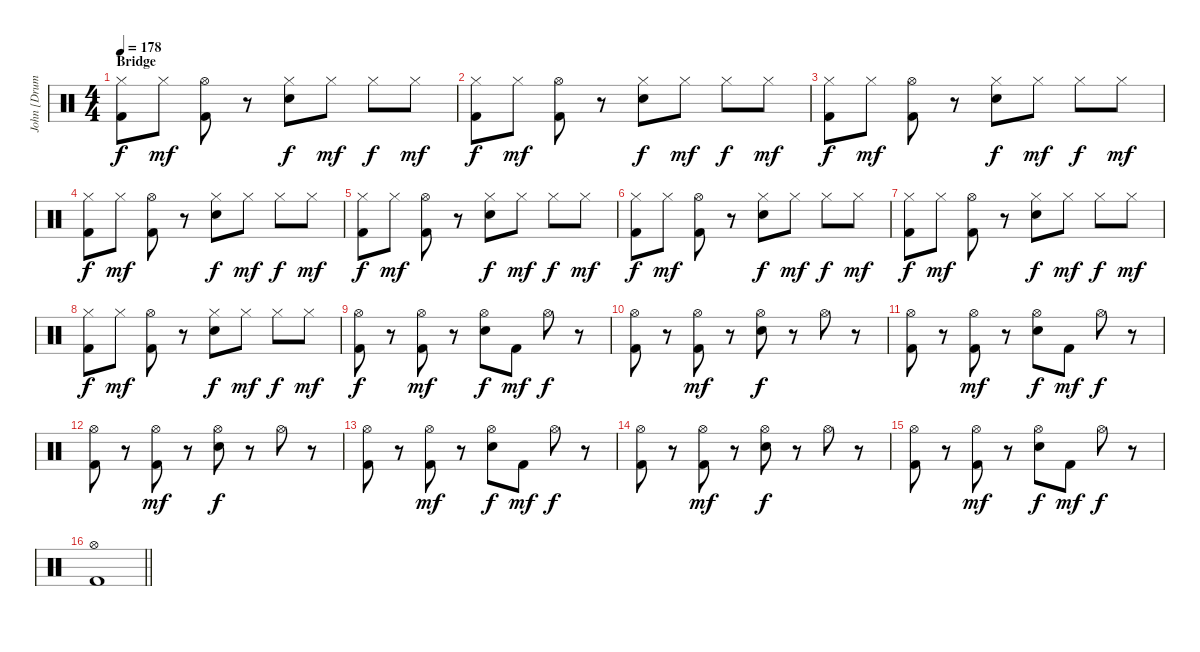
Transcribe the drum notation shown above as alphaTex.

\track ("John [Drums]" "John [Drum") {instrument percussion}
\staff {score}
\articulation defaults
\ts (4 4)
\section ("" "Bridge")
\tempo 178
\clef neutral
\ks c
("Hi-Hat (closed)" "Kick (hit) 2").8{dy f} "Hi-Hat (closed)".8{dy mf} ("Hi-Hat (open)" "Kick (hit) 2").8 r.8 ("Hi-Hat (closed)" "Electric Snare (hit)").8{dy f} "Hi-Hat (closed)".8{dy mf} "Hi-Hat (closed)".8{dy f} "Hi-Hat (closed)".8{dy mf} |
("Hi-Hat (closed)" "Kick (hit) 2").8{dy f} "Hi-Hat (closed)".8{dy mf} ("Hi-Hat (open)" "Kick (hit) 2").8 r.8 ("Hi-Hat (closed)" "Electric Snare (hit)").8{dy f} "Hi-Hat (closed)".8{dy mf} "Hi-Hat (closed)".8{dy f} "Hi-Hat (closed)".8{dy mf} |
("Hi-Hat (closed)" "Kick (hit) 2").8{dy f} "Hi-Hat (closed)".8{dy mf} ("Hi-Hat (open)" "Kick (hit) 2").8 r.8 ("Hi-Hat (closed)" "Electric Snare (hit)").8{dy f} "Hi-Hat (closed)".8{dy mf} "Hi-Hat (closed)".8{dy f} "Hi-Hat (closed)".8{dy mf} |
("Hi-Hat (closed)" "Kick (hit) 2").8{dy f} "Hi-Hat (closed)".8{dy mf} ("Hi-Hat (open)" "Kick (hit) 2").8 r.8 ("Hi-Hat (closed)" "Electric Snare (hit)").8{dy f} "Hi-Hat (closed)".8{dy mf} "Hi-Hat (closed)".8{dy f} "Hi-Hat (closed)".8{dy mf} |
("Hi-Hat (closed)" "Kick (hit) 2").8{dy f} "Hi-Hat (closed)".8{dy mf} ("Hi-Hat (open)" "Kick (hit) 2").8 r.8 ("Hi-Hat (closed)" "Electric Snare (hit)").8{dy f} "Hi-Hat (closed)".8{dy mf} "Hi-Hat (closed)".8{dy f} "Hi-Hat (closed)".8{dy mf} |
("Hi-Hat (closed)" "Kick (hit) 2").8{dy f} "Hi-Hat (closed)".8{dy mf} ("Hi-Hat (open)" "Kick (hit) 2").8 r.8 ("Hi-Hat (closed)" "Electric Snare (hit)").8{dy f} "Hi-Hat (closed)".8{dy mf} "Hi-Hat (closed)".8{dy f} "Hi-Hat (closed)".8{dy mf} |
("Hi-Hat (closed)" "Kick (hit) 2").8{dy f} "Hi-Hat (closed)".8{dy mf} ("Hi-Hat (open)" "Kick (hit) 2").8 r.8 ("Hi-Hat (closed)" "Electric Snare (hit)").8{dy f} "Hi-Hat (closed)".8{dy mf} "Hi-Hat (closed)".8{dy f} "Hi-Hat (closed)".8{dy mf} |
("Hi-Hat (closed)" "Kick (hit) 2").8{dy f} "Hi-Hat (closed)".8{dy mf} ("Hi-Hat (open)" "Kick (hit) 2").8 r.8 ("Hi-Hat (closed)" "Electric Snare (hit)").8{dy f} "Hi-Hat (closed)".8{dy mf} "Hi-Hat (closed)".8{dy f} "Hi-Hat (closed)".8{dy mf} |
("Hi-Hat (open)" "Kick (hit) 2").8{dy f} r.8 ("Hi-Hat (open)" "Kick (hit) 2").8{dy mf} r.8 ("Hi-Hat (open)" "Electric Snare (hit)").8{dy f} "Kick (hit) 2".8{dy mf} "Hi-Hat (open)".8{dy f} r.8 |
("Hi-Hat (open)" "Kick (hit) 2").8 r.8 ("Hi-Hat (open)" "Kick (hit) 2").8{dy mf} r.8 ("Hi-Hat (open)" "Electric Snare (hit)").8{dy f} r.8 "Hi-Hat (open)".8 r.8 |
("Hi-Hat (open)" "Kick (hit) 2").8 r.8 ("Hi-Hat (open)" "Kick (hit) 2").8{dy mf} r.8 ("Hi-Hat (open)" "Electric Snare (hit)").8{dy f} "Kick (hit) 2".8{dy mf} "Hi-Hat (open)".8{dy f} r.8 |
("Hi-Hat (open)" "Kick (hit) 2").8 r.8 ("Hi-Hat (open)" "Kick (hit) 2").8{dy mf} r.8 ("Hi-Hat (open)" "Electric Snare (hit)").8{dy f} r.8 "Hi-Hat (open)".8 r.8 |
("Hi-Hat (open)" "Kick (hit) 2").8 r.8 ("Hi-Hat (open)" "Kick (hit) 2").8{dy mf} r.8 ("Hi-Hat (open)" "Electric Snare (hit)").8{dy f} "Kick (hit) 2".8{dy mf} "Hi-Hat (open)".8{dy f} r.8 |
("Hi-Hat (open)" "Kick (hit) 2").8 r.8 ("Hi-Hat (open)" "Kick (hit) 2").8{dy mf} r.8 ("Hi-Hat (open)" "Electric Snare (hit)").8{dy f} r.8 "Hi-Hat (open)".8 r.8 |
("Hi-Hat (open)" "Kick (hit) 2").8 r.8 ("Hi-Hat (open)" "Kick (hit) 2").8{dy mf} r.8 ("Hi-Hat (open)" "Electric Snare (hit)").8{dy f} "Kick (hit) 2".8{dy mf} "Hi-Hat (open)".8{dy f} r.8 |
\barLineRight lightlight
("Hi-Hat (open)" "Kick (hit) 2").1
